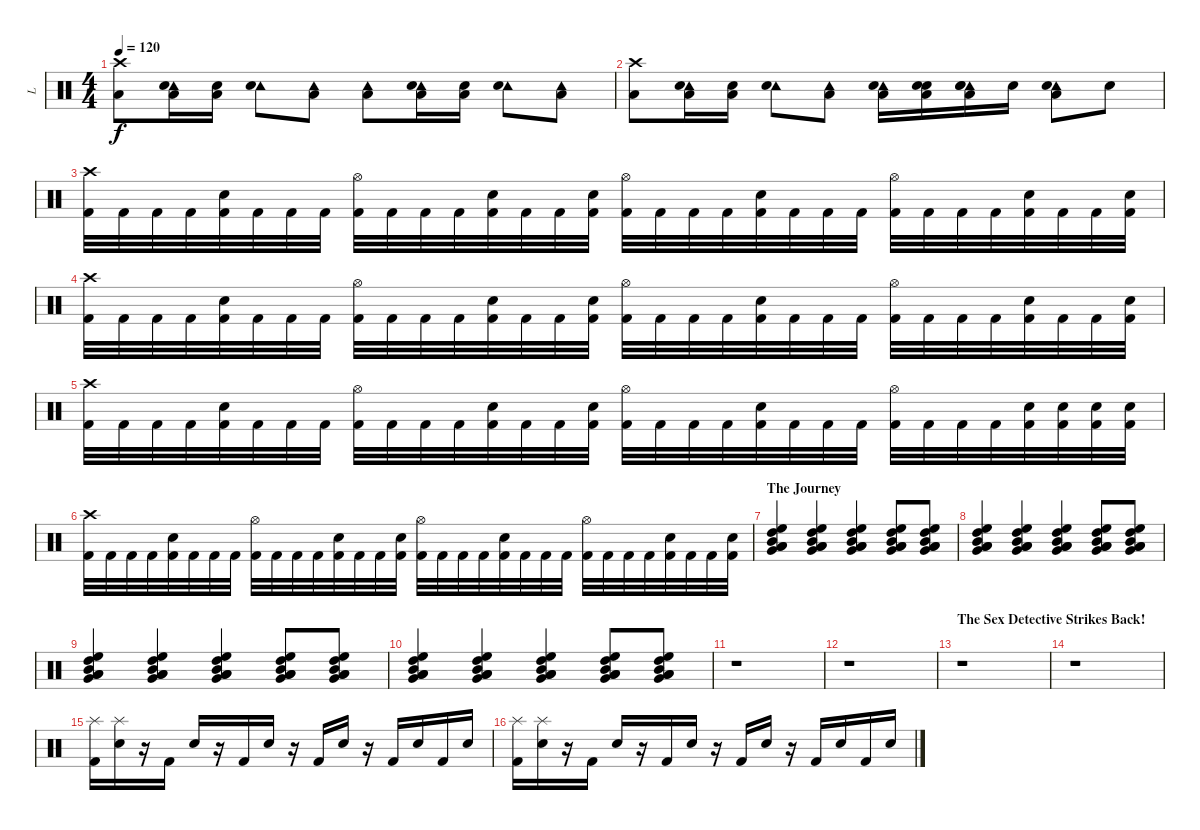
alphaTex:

\track ("L" "L") {instrument percussion}
\staff {score}
\articulation defaults
\ts (4 4)
\tempo 120
\clef neutral
\ks c
("Crash high (hit)" "Low Floor Tom (hit)").8{dy f} ("Tambourine (hit)" "Snare (hit) 2" "Low Floor Tom (hit)").16 ("Snare (hit) 2" "Low Floor Tom (hit)").16 ("Tambourine (hit)" "Electric Snare (hit)").8 ("Tambourine (hit)" "Low Floor Tom (hit)").8 ("Tambourine (hit)" "Low Floor Tom (hit)").8 ("Tambourine (hit)" "Snare (hit) 2" "Low Floor Tom (hit)").16 ("Snare (hit) 2" "Low Floor Tom (hit)").16 ("Tambourine (hit)" "Electric Snare (hit)").8 ("Tambourine (hit)" "Low Floor Tom (hit)").8 |
("Crash high (hit)" "Low Floor Tom (hit)").8 ("Tambourine (hit)" "Snare (hit) 2" "Low Floor Tom (hit)").16 ("Snare (hit) 2" "Low Floor Tom (hit)").16 ("Tambourine (hit)" "Electric Snare (hit)").8 ("Tambourine (hit)" "Low Floor Tom (hit)").8 ("Tambourine (hit)" "Electric Snare (hit)" "Low Floor Tom (hit)").16 ("Electric Snare (hit)" "Snare (hit) 2" "Low Floor Tom (hit)").16 ("Tambourine (hit)" "Electric Snare (hit)" "Snare (hit) 2" "Low Floor Tom (hit)").16 "Electric Snare (hit)".16 ("Tambourine (hit)" "Electric Snare (hit)" "Low Floor Tom (hit)").8 "Electric Snare (hit)".8 |
("Crash high (hit)" "Kick (hit) 2").32 "Kick (hit) 2".32 "Kick (hit) 2".32 "Kick (hit) 2".32 ("Electric Snare (hit)" "Kick (hit) 2").32 "Kick (hit) 2".32 "Kick (hit) 2".32 "Kick (hit) 2".32 ("Hi-Hat (open)" "Kick (hit) 2").32 "Kick (hit) 2".32 "Kick (hit) 2".32 "Kick (hit) 2".32 ("Electric Snare (hit)" "Kick (hit) 2").32 "Kick (hit) 2".32 "Kick (hit) 2".32 ("Electric Snare (hit)" "Kick (hit) 2").32 ("Hi-Hat (open)" "Kick (hit) 2").32 "Kick (hit) 2".32 "Kick (hit) 2".32 "Kick (hit) 2".32 ("Electric Snare (hit)" "Kick (hit) 2").32 "Kick (hit) 2".32 "Kick (hit) 2".32 "Kick (hit) 2".32 ("Hi-Hat (open)" "Kick (hit) 2").32 "Kick (hit) 2".32 "Kick (hit) 2".32 "Kick (hit) 2".32 ("Electric Snare (hit)" "Kick (hit) 2").32 "Kick (hit) 2".32 "Kick (hit) 2".32 ("Electric Snare (hit)" "Kick (hit) 2").32 |
("Crash high (hit)" "Kick (hit) 2").32 "Kick (hit) 2".32 "Kick (hit) 2".32 "Kick (hit) 2".32 ("Electric Snare (hit)" "Kick (hit) 2").32 "Kick (hit) 2".32 "Kick (hit) 2".32 "Kick (hit) 2".32 ("Hi-Hat (open)" "Kick (hit) 2").32 "Kick (hit) 2".32 "Kick (hit) 2".32 "Kick (hit) 2".32 ("Electric Snare (hit)" "Kick (hit) 2").32 "Kick (hit) 2".32 "Kick (hit) 2".32 ("Electric Snare (hit)" "Kick (hit) 2").32 ("Hi-Hat (open)" "Kick (hit) 2").32 "Kick (hit) 2".32 "Kick (hit) 2".32 "Kick (hit) 2".32 ("Electric Snare (hit)" "Kick (hit) 2").32 "Kick (hit) 2".32 "Kick (hit) 2".32 "Kick (hit) 2".32 ("Hi-Hat (open)" "Kick (hit) 2").32 "Kick (hit) 2".32 "Kick (hit) 2".32 "Kick (hit) 2".32 ("Electric Snare (hit)" "Kick (hit) 2").32 "Kick (hit) 2".32 "Kick (hit) 2".32 ("Electric Snare (hit)" "Kick (hit) 2").32 |
("Crash high (hit)" "Kick (hit) 2").32 "Kick (hit) 2".32 "Kick (hit) 2".32 "Kick (hit) 2".32 ("Electric Snare (hit)" "Kick (hit) 2").32 "Kick (hit) 2".32 "Kick (hit) 2".32 "Kick (hit) 2".32 ("Hi-Hat (open)" "Kick (hit) 2").32 "Kick (hit) 2".32 "Kick (hit) 2".32 "Kick (hit) 2".32 ("Electric Snare (hit)" "Kick (hit) 2").32 "Kick (hit) 2".32 "Kick (hit) 2".32 ("Electric Snare (hit)" "Kick (hit) 2").32 ("Hi-Hat (open)" "Kick (hit) 2").32 "Kick (hit) 2".32 "Kick (hit) 2".32 "Kick (hit) 2".32 ("Electric Snare (hit)" "Kick (hit) 2").32 "Kick (hit) 2".32 "Kick (hit) 2".32 "Kick (hit) 2".32 ("Hi-Hat (open)" "Kick (hit) 2").32 "Kick (hit) 2".32 "Kick (hit) 2".32 "Kick (hit) 2".32 ("Electric Snare (hit)" "Kick (hit) 2").32 ("Electric Snare (hit)" "Kick (hit) 2").32 ("Electric Snare (hit)" "Kick (hit) 2").32 ("Electric Snare (hit)" "Kick (hit) 2").32 |
("Crash high (hit)" "Kick (hit) 2").32 "Kick (hit) 2".32 "Kick (hit) 2".32 "Kick (hit) 2".32 ("Electric Snare (hit)" "Kick (hit) 2").32 "Kick (hit) 2".32 "Kick (hit) 2".32 "Kick (hit) 2".32 ("Hi-Hat (open)" "Kick (hit) 2").32 "Kick (hit) 2".32 "Kick (hit) 2".32 "Kick (hit) 2".32 ("Electric Snare (hit)" "Kick (hit) 2").32 "Kick (hit) 2".32 "Kick (hit) 2".32 ("Electric Snare (hit)" "Kick (hit) 2").32 ("Hi-Hat (open)" "Kick (hit) 2").32 "Kick (hit) 2".32 "Kick (hit) 2".32 "Kick (hit) 2".32 ("Electric Snare (hit)" "Kick (hit) 2").32 "Kick (hit) 2".32 "Kick (hit) 2".32 "Kick (hit) 2".32 ("Hi-Hat (open)" "Kick (hit) 2").32 "Kick (hit) 2".32 "Kick (hit) 2".32 "Kick (hit) 2".32 ("Electric Snare (hit)" "Kick (hit) 2").32 "Kick (hit) 2".32 "Kick (hit) 2".32 ("Electric Snare (hit)" "Kick (hit) 2").32 |
\section ("" "The Journey")
("High Floor Tom (hit)" "High Tom (hit)" "Mid Tom (hit)" "Low Tom (hit)" "Very Low Tom (hit)" "Low Floor Tom (hit)").4 ("High Floor Tom (hit)" "High Tom (hit)" "Mid Tom (hit)" "Low Tom (hit)" "Very Low Tom (hit)" "Low Floor Tom (hit)").4 ("High Floor Tom (hit)" "High Tom (hit)" "Mid Tom (hit)" "Low Tom (hit)" "Very Low Tom (hit)" "Low Floor Tom (hit)").4 ("High Floor Tom (hit)" "High Tom (hit)" "Mid Tom (hit)" "Low Tom (hit)" "Very Low Tom (hit)" "Low Floor Tom (hit)").8 ("High Floor Tom (hit)" "High Tom (hit)" "Mid Tom (hit)" "Low Tom (hit)" "Very Low Tom (hit)" "Low Floor Tom (hit)").8 |
("High Floor Tom (hit)" "High Tom (hit)" "Mid Tom (hit)" "Low Tom (hit)" "Very Low Tom (hit)" "Low Floor Tom (hit)").4 ("High Floor Tom (hit)" "High Tom (hit)" "Mid Tom (hit)" "Low Tom (hit)" "Very Low Tom (hit)" "Low Floor Tom (hit)").4 ("High Floor Tom (hit)" "High Tom (hit)" "Mid Tom (hit)" "Low Tom (hit)" "Very Low Tom (hit)" "Low Floor Tom (hit)").4 ("High Floor Tom (hit)" "High Tom (hit)" "Mid Tom (hit)" "Low Tom (hit)" "Very Low Tom (hit)" "Low Floor Tom (hit)").8 ("High Floor Tom (hit)" "High Tom (hit)" "Mid Tom (hit)" "Low Tom (hit)" "Very Low Tom (hit)" "Low Floor Tom (hit)").8 |
("High Floor Tom (hit)" "High Tom (hit)" "Mid Tom (hit)" "Low Tom (hit)" "Very Low Tom (hit)" "Low Floor Tom (hit)").4 ("High Floor Tom (hit)" "High Tom (hit)" "Mid Tom (hit)" "Low Tom (hit)" "Very Low Tom (hit)" "Low Floor Tom (hit)").4 ("High Floor Tom (hit)" "High Tom (hit)" "Mid Tom (hit)" "Low Tom (hit)" "Very Low Tom (hit)" "Low Floor Tom (hit)").4 ("High Floor Tom (hit)" "High Tom (hit)" "Mid Tom (hit)" "Low Tom (hit)" "Very Low Tom (hit)" "Low Floor Tom (hit)").8 ("High Floor Tom (hit)" "High Tom (hit)" "Mid Tom (hit)" "Low Tom (hit)" "Very Low Tom (hit)" "Low Floor Tom (hit)").8 |
("High Floor Tom (hit)" "High Tom (hit)" "Mid Tom (hit)" "Low Tom (hit)" "Very Low Tom (hit)" "Low Floor Tom (hit)").4 ("High Floor Tom (hit)" "High Tom (hit)" "Mid Tom (hit)" "Low Tom (hit)" "Very Low Tom (hit)" "Low Floor Tom (hit)").4 ("High Floor Tom (hit)" "High Tom (hit)" "Mid Tom (hit)" "Low Tom (hit)" "Very Low Tom (hit)" "Low Floor Tom (hit)").4 ("High Floor Tom (hit)" "High Tom (hit)" "Mid Tom (hit)" "Low Tom (hit)" "Very Low Tom (hit)" "Low Floor Tom (hit)").8 ("High Floor Tom (hit)" "High Tom (hit)" "Mid Tom (hit)" "Low Tom (hit)" "Very Low Tom (hit)" "Low Floor Tom (hit)").8 |
r.1 |
r.1 |
\section ("" "The Sex Detective Strikes Back!")
r.1 |
r.1 |
("Splash (hit)" "Kick (hit) 2").16 ("Splash (hit)" "Electric Snare (hit)").16 r.16 "Kick (hit) 2".16 "Electric Snare (hit)".16 r.16 "Kick (hit) 2".16 "Electric Snare (hit)".16 r.16 "Kick (hit) 2".16 "Electric Snare (hit)".16 r.16 "Kick (hit) 2".16 "Electric Snare (hit)".16 "Kick (hit) 2".16 "Electric Snare (hit)".16 |
("Splash (hit)" "Kick (hit) 2").16 ("Splash (hit)" "Electric Snare (hit)").16 r.16 "Kick (hit) 2".16 "Electric Snare (hit)".16 r.16 "Kick (hit) 2".16 "Electric Snare (hit)".16 r.16 "Kick (hit) 2".16 "Electric Snare (hit)".16 r.16 "Kick (hit) 2".16 "Electric Snare (hit)".16 "Kick (hit) 2".16 "Electric Snare (hit)".16
